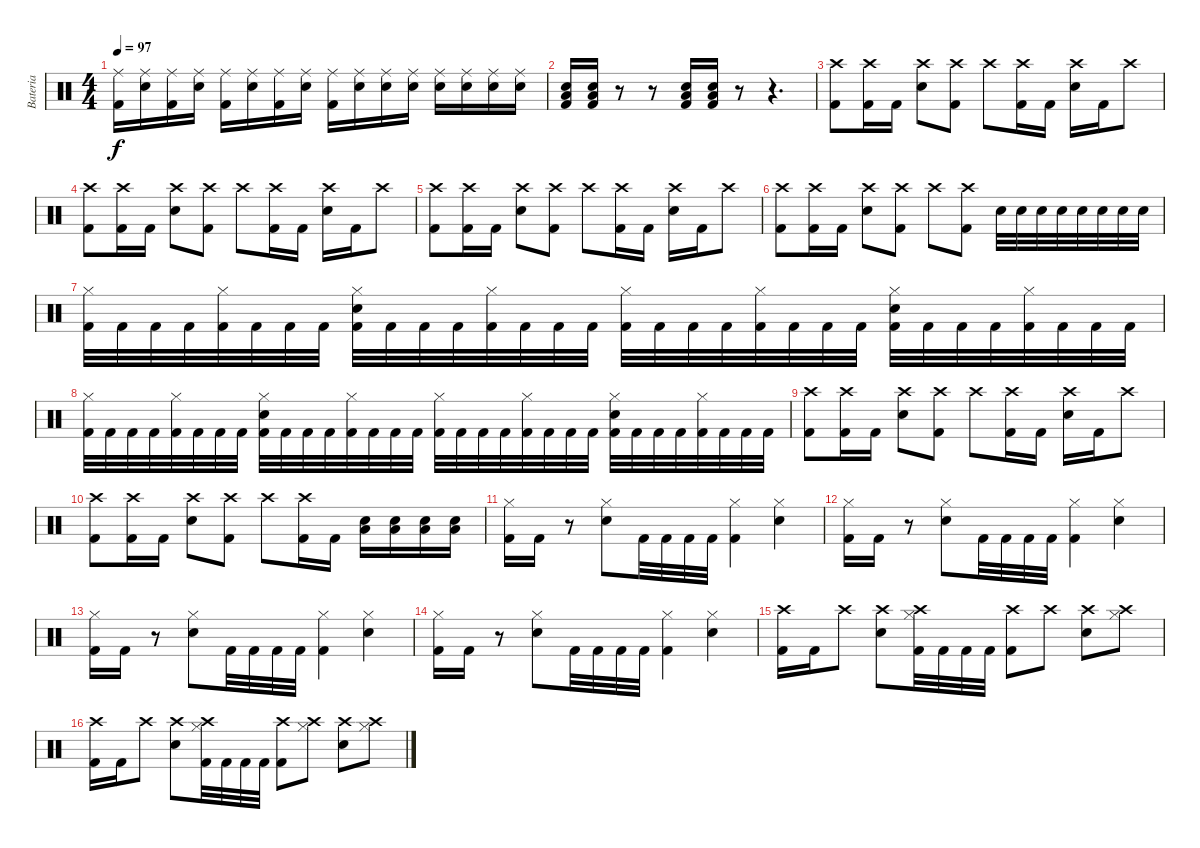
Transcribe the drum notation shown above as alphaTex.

\track ("Bateria" "Bateria") {instrument percussion}
\staff {score}
\articulation defaults
\ts (4 4)
\tempo 97
\clef neutral
\ks c
("Ride (middle)" "Kick (hit) 2").16{dy f} ("Ride (middle)" "Electric Snare (hit)").16 ("Ride (middle)" "Kick (hit) 2").16 ("Ride (middle)" "Electric Snare (hit)").16 ("Ride (middle)" "Kick (hit) 2").16 ("Ride (middle)" "Electric Snare (hit)").16 ("Ride (middle)" "Kick (hit) 2").16 ("Ride (middle)" "Electric Snare (hit)").16 ("Ride (middle)" "Kick (hit) 2").16 ("Ride (middle)" "Electric Snare (hit)").16 ("Ride (middle)" "Electric Snare (hit)").16 ("Ride (middle)" "Electric Snare (hit)").16 ("Ride (middle)" "Electric Snare (hit)").16 ("Ride (middle)" "Electric Snare (hit)").16 ("Ride (middle)" "Electric Snare (hit)").16 ("Ride (middle)" "Electric Snare (hit)").16 |
("Low Floor Tom (hit)" "Electric Snare (hit)" "Kick (hit) 2").16 ("Low Floor Tom (hit)" "Electric Snare (hit)" "Kick (hit) 2").16 r.8 r.8 ("Low Floor Tom (hit)" "Electric Snare (hit)" "Kick (hit) 2").16 ("Low Floor Tom (hit)" "Electric Snare (hit)" "Kick (hit) 2").16 r.8 r.4{d} |
("Crash high (hit)" "Kick (hit) 2").8 ("Crash high (hit)" "Kick (hit) 2").16 "Kick (hit) 2".16 ("Crash high (hit)" "Electric Snare (hit)").8 ("Crash high (hit)" "Kick (hit) 2").8 "Crash high (hit)".8 ("Crash high (hit)" "Kick (hit) 2").16 "Kick (hit) 2".16 ("Crash high (hit)" "Electric Snare (hit)").16 "Kick (hit) 2".16 "Crash high (hit)".8 |
("Crash high (hit)" "Kick (hit) 2").8 ("Crash high (hit)" "Kick (hit) 2").16 "Kick (hit) 2".16 ("Crash high (hit)" "Electric Snare (hit)").8 ("Crash high (hit)" "Kick (hit) 2").8 "Crash high (hit)".8 ("Crash high (hit)" "Kick (hit) 2").16 "Kick (hit) 2".16 ("Crash high (hit)" "Electric Snare (hit)").16 "Kick (hit) 2".16 "Crash high (hit)".8 |
("Crash high (hit)" "Kick (hit) 2").8 ("Crash high (hit)" "Kick (hit) 2").16 "Kick (hit) 2".16 ("Crash high (hit)" "Electric Snare (hit)").8 ("Crash high (hit)" "Kick (hit) 2").8 "Crash high (hit)".8 ("Crash high (hit)" "Kick (hit) 2").16 "Kick (hit) 2".16 ("Crash high (hit)" "Electric Snare (hit)").16 "Kick (hit) 2".16 "Crash high (hit)".8 |
("Crash high (hit)" "Kick (hit) 2").8 ("Crash high (hit)" "Kick (hit) 2").16 "Kick (hit) 2".16 ("Crash high (hit)" "Electric Snare (hit)").8 ("Crash high (hit)" "Kick (hit) 2").8 "Crash high (hit)".8 ("Crash high (hit)" "Kick (hit) 2").8 "Electric Snare (hit)".32 "Electric Snare (hit)".32 "Electric Snare (hit)".32 "Electric Snare (hit)".32 "Electric Snare (hit)".32 "Electric Snare (hit)".32 "Electric Snare (hit)".32 "Electric Snare (hit)".32 |
("Hi-Hat (closed)" "Kick (hit) 2").32 "Kick (hit) 2".32 "Kick (hit) 2".32 "Kick (hit) 2".32 ("Hi-Hat (closed)" "Kick (hit) 2").32 "Kick (hit) 2".32 "Kick (hit) 2".32 "Kick (hit) 2".32 ("Hi-Hat (closed)" "Electric Snare (hit)" "Kick (hit) 2").32 "Kick (hit) 2".32 "Kick (hit) 2".32 "Kick (hit) 2".32 ("Hi-Hat (closed)" "Kick (hit) 2").32 "Kick (hit) 2".32 "Kick (hit) 2".32 "Kick (hit) 2".32 ("Hi-Hat (closed)" "Kick (hit) 2").32 "Kick (hit) 2".32 "Kick (hit) 2".32 "Kick (hit) 2".32 ("Hi-Hat (closed)" "Kick (hit) 2").32 "Kick (hit) 2".32 "Kick (hit) 2".32 "Kick (hit) 2".32 ("Hi-Hat (closed)" "Electric Snare (hit)" "Kick (hit) 2").32 "Kick (hit) 2".32 "Kick (hit) 2".32 "Kick (hit) 2".32 ("Hi-Hat (closed)" "Kick (hit) 2").32 "Kick (hit) 2".32 "Kick (hit) 2".32 "Kick (hit) 2".32 |
("Hi-Hat (closed)" "Kick (hit) 2").32 "Kick (hit) 2".32 "Kick (hit) 2".32 "Kick (hit) 2".32 ("Hi-Hat (closed)" "Kick (hit) 2").32 "Kick (hit) 2".32 "Kick (hit) 2".32 "Kick (hit) 2".32 ("Hi-Hat (closed)" "Electric Snare (hit)" "Kick (hit) 2").32 "Kick (hit) 2".32 "Kick (hit) 2".32 "Kick (hit) 2".32 ("Hi-Hat (closed)" "Kick (hit) 2").32 "Kick (hit) 2".32 "Kick (hit) 2".32 "Kick (hit) 2".32 ("Hi-Hat (closed)" "Kick (hit) 2").32 "Kick (hit) 2".32 "Kick (hit) 2".32 "Kick (hit) 2".32 ("Hi-Hat (closed)" "Kick (hit) 2").32 "Kick (hit) 2".32 "Kick (hit) 2".32 "Kick (hit) 2".32 ("Hi-Hat (closed)" "Electric Snare (hit)" "Kick (hit) 2").32 "Kick (hit) 2".32 "Kick (hit) 2".32 "Kick (hit) 2".32 ("Hi-Hat (closed)" "Kick (hit) 2").32 "Kick (hit) 2".32 "Kick (hit) 2".32 "Kick (hit) 2".32 |
("Crash high (hit)" "Kick (hit) 2").8 ("Crash high (hit)" "Kick (hit) 2").16 "Kick (hit) 2".16 ("Crash high (hit)" "Electric Snare (hit)").8 ("Crash high (hit)" "Kick (hit) 2").8 "Crash high (hit)".8 ("Crash high (hit)" "Kick (hit) 2").16 "Kick (hit) 2".16 ("Crash high (hit)" "Electric Snare (hit)").16 "Kick (hit) 2".16 "Crash high (hit)".8 |
("Crash high (hit)" "Kick (hit) 2").8 ("Crash high (hit)" "Kick (hit) 2").16 "Kick (hit) 2".16 ("Crash high (hit)" "Electric Snare (hit)").8 ("Crash high (hit)" "Kick (hit) 2").8 "Crash high (hit)".8 ("Crash high (hit)" "Kick (hit) 2").16 "Kick (hit) 2".16 ("Low Floor Tom (hit)" "Electric Snare (hit)").16 ("Low Floor Tom (hit)" "Electric Snare (hit)").16 ("Low Floor Tom (hit)" "Electric Snare (hit)").16 ("Low Floor Tom (hit)" "Electric Snare (hit)").16 |
("Hi-Hat (closed)" "Kick (hit) 2").16 "Kick (hit) 2".16 r.8 ("Hi-Hat (closed)" "Electric Snare (hit)").8 "Kick (hit) 2".32 "Kick (hit) 2".32 "Kick (hit) 2".32 "Kick (hit) 2".32 ("Hi-Hat (closed)" "Kick (hit) 2").4 ("Hi-Hat (closed)" "Electric Snare (hit)").4 |
("Hi-Hat (closed)" "Kick (hit) 2").16 "Kick (hit) 2".16 r.8 ("Hi-Hat (closed)" "Electric Snare (hit)").8 "Kick (hit) 2".32 "Kick (hit) 2".32 "Kick (hit) 2".32 "Kick (hit) 2".32 ("Hi-Hat (closed)" "Kick (hit) 2").4 ("Hi-Hat (closed)" "Electric Snare (hit)").4 |
("Hi-Hat (closed)" "Kick (hit) 2").16 "Kick (hit) 2".16 r.8 ("Hi-Hat (closed)" "Electric Snare (hit)").8 "Kick (hit) 2".32 "Kick (hit) 2".32 "Kick (hit) 2".32 "Kick (hit) 2".32 ("Hi-Hat (closed)" "Kick (hit) 2").4 ("Hi-Hat (closed)" "Electric Snare (hit)").4 |
("Hi-Hat (closed)" "Kick (hit) 2").16 "Kick (hit) 2".16 r.8 ("Hi-Hat (closed)" "Electric Snare (hit)").8 "Kick (hit) 2".32 "Kick (hit) 2".32 "Kick (hit) 2".32 "Kick (hit) 2".32 ("Hi-Hat (closed)" "Kick (hit) 2").4 ("Hi-Hat (closed)" "Electric Snare (hit)").4 |
("Crash high (hit)" "Kick (hit) 2").16 "Kick (hit) 2".16 "Crash high (hit)".8 ("Crash high (hit)" "Electric Snare (hit)").8 ("Crash high (hit)" "Hi-Hat (closed)" "Kick (hit) 2").32 "Kick (hit) 2".32 "Kick (hit) 2".32 "Kick (hit) 2".32 ("Crash high (hit)" "Kick (hit) 2").8 "Crash high (hit)".8 ("Crash high (hit)" "Electric Snare (hit)").8 ("Crash high (hit)" "Hi-Hat (closed)").8 |
("Crash high (hit)" "Kick (hit) 2").16 "Kick (hit) 2".16 "Crash high (hit)".8 ("Crash high (hit)" "Electric Snare (hit)").8 ("Crash high (hit)" "Hi-Hat (closed)" "Kick (hit) 2").32 "Kick (hit) 2".32 "Kick (hit) 2".32 "Kick (hit) 2".32 ("Crash high (hit)" "Kick (hit) 2").8 ("Crash high (hit)" "Hi-Hat (closed)").8 ("Crash high (hit)" "Electric Snare (hit)").8 ("Crash high (hit)" "Hi-Hat (closed)").8
